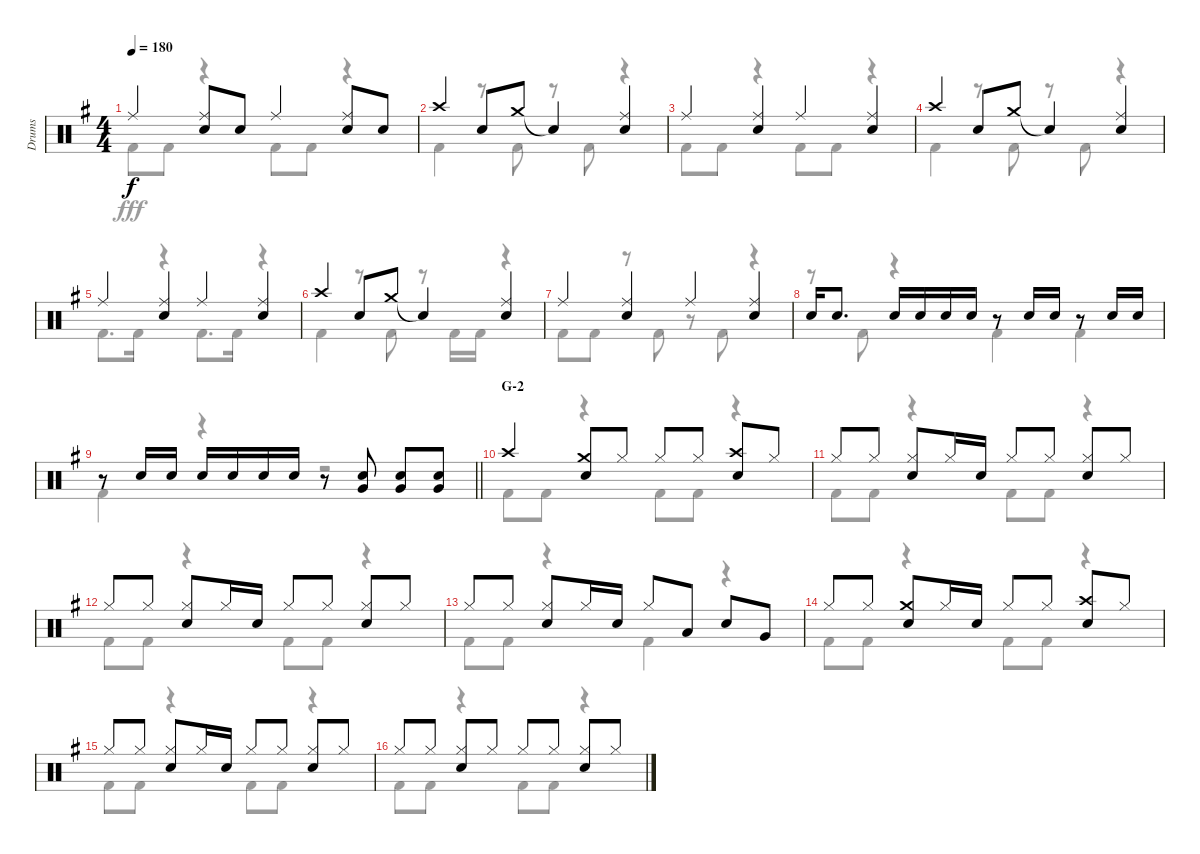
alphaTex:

\track ("Drums" "Drums") {instrument percussion}
\staff {score}
\articulation defaults
\voice
\ts (4 4)
\tempo 180
\clef neutral
\ks g "Ride (middle)".4{dy f}
("Ride (middle)" "Snare (hit) 2").8 "Snare (hit) 2".8 "Ride (middle)".4 ("Ride (middle)" "Snare (hit) 2").8 "Snare (hit) 2".8 |
"Crash high (hit)".4 "Snare (hit) 2".8 "Crash medium (hit)".8 "Snare (hit)"{t}.4 ("Ride (middle)" "Snare (hit) 2").4 |
"Ride (middle)".4 ("Ride (middle)" "Snare (hit) 2").4 "Ride (middle)".4 ("Ride (middle)" "Snare (hit) 2").4 |
"Crash high (hit)".4 "Snare (hit) 2".8 "Crash medium (hit)".8 "Snare (hit)"{t}.4 ("Ride (middle)" "Snare (hit) 2").4 |
"Ride (middle)".4 ("Ride (middle)" "Snare (hit) 2").4 "Ride (middle)".4 ("Ride (middle)" "Snare (hit) 2").4 |
"Crash high (hit)".4 "Snare (hit) 2".8 "Crash medium (hit)".8 "Snare (hit)"{t}.4 ("Ride (middle)" "Snare (hit) 2").4 |
"Ride (middle)".4 ("Ride (middle)" "Snare (hit) 2").4 "Ride (middle)".4 ("Ride (middle)" "Snare (hit) 2").4 |
"Snare (hit) 2".16 "Snare (hit) 2".8{d} "Snare (hit) 2".16 "Snare (hit) 2".16 "Snare (hit) 2".16 "Snare (hit) 2".16 r.8 "Snare (hit) 2".16 "Snare (hit) 2".16 r.8 "Snare (hit) 2".16 "Snare (hit) 2".16 |
\barLineRight lightlight
r.8 "Snare (hit) 2".16 "Snare (hit) 2".16 "Snare (hit) 2".16 "Snare (hit) 2".16 "Snare (hit) 2".16 "Snare (hit) 2".16 r.8 ("Snare (hit) 2" "Very Low Tom (hit)").8 ("Snare (hit) 2" "Very Low Tom (hit)").8 ("Snare (hit) 2" "Very Low Tom (hit)").8 |
\section ("" "G-2")
"Crash high (hit)".4 ("Crash medium (hit)" "Snare (hit) 2").8 "Hi-Hat (closed)".8 "Hi-Hat (closed)".8 "Hi-Hat (closed)".8 ("Crash high (hit)" "Snare (hit) 2").8 "Hi-Hat (closed)".8 |
"Hi-Hat (closed)".8 "Hi-Hat (closed)".8 ("Hi-Hat (closed)" "Snare (hit) 2").8 "Hi-Hat (closed)".16 "Snare (hit) 2".16 "Hi-Hat (closed)".8 "Hi-Hat (closed)".8 ("Hi-Hat (closed)" "Snare (hit) 2").8 "Hi-Hat (closed)".8 |
"Hi-Hat (closed)".8 "Hi-Hat (closed)".8 ("Hi-Hat (closed)" "Snare (hit) 2").8 "Hi-Hat (closed)".16 "Snare (hit) 2".16 "Hi-Hat (closed)".8 "Hi-Hat (closed)".8 ("Hi-Hat (closed)" "Snare (hit) 2").8 "Hi-Hat (closed)".8 |
"Hi-Hat (closed)".8 "Hi-Hat (closed)".8 ("Hi-Hat (closed)" "Snare (hit) 2").8 "Hi-Hat (closed)".16 "Snare (hit) 2".16 "Hi-Hat (closed)".8 "Low Tom (hit)".8 "Snare (hit) 2".8 "Very Low Tom (hit)".8 |
"Hi-Hat (closed)".8 "Hi-Hat (closed)".8 ("Crash medium (hit)" "Snare (hit) 2").8 "Hi-Hat (closed)".16 "Snare (hit) 2".16 "Hi-Hat (closed)".8 "Hi-Hat (closed)".8 ("Crash high (hit)" "Snare (hit) 2").8 "Hi-Hat (closed)".8 |
"Hi-Hat (closed)".8 "Hi-Hat (closed)".8 ("Hi-Hat (closed)" "Snare (hit) 2").8 "Hi-Hat (closed)".16 "Snare (hit) 2".16 "Hi-Hat (closed)".8 "Hi-Hat (closed)".8 ("Hi-Hat (closed)" "Snare (hit) 2").8 "Hi-Hat (closed)".8 |
"Hi-Hat (closed)".8 "Hi-Hat (closed)".8 ("Hi-Hat (closed)" "Snare (hit) 2").8 "Hi-Hat (closed)".8 "Hi-Hat (closed)".8 "Hi-Hat (closed)".8 ("Hi-Hat (closed)" "Snare (hit) 2").8 "Hi-Hat (closed)".8
\voice
\clef neutral
\ottava regular
\simile none
\ks g "Kick (hit) 2".8{dy fff} "Kick (hit) 2".8
r.4 "Kick (hit) 2".8 "Kick (hit) 2".8 r.4 |
"Kick (hit) 2".4 r.8 "Kick (hit) 2".8 r.8 "Kick (hit) 2".8 r.4 |
"Kick (hit) 2".8 "Kick (hit) 2".8 r.4 "Kick (hit) 2".8 "Kick (hit) 2".8 r.4 |
"Kick (hit) 2".4 r.8 "Kick (hit) 2".8 r.8 "Kick (hit) 2".8 r.4 |
"Kick (hit) 2".8{d} "Kick (hit) 2".16 r.4 "Kick (hit) 2".8{d} "Kick (hit) 2".16 r.4 |
"Kick (hit) 2".4 r.8 "Kick (hit) 2".8 r.8 "Kick (hit) 2".16 "Kick (hit) 2".16 r.4 |
"Kick (hit) 2".8 "Kick (hit) 2".8 r.8 "Kick (hit) 2".8 r.8 "Kick (hit) 2".8 r.4 |
r.8 "Kick (hit) 2".8 r.4 "Kick (hit) 2".4 "Kick (hit) 2".4 |
\barLineRight lightlight "Kick (hit) 2".4
r.4 r.2 |
"Kick (hit) 2".8 "Kick (hit) 2".8 r.4 "Kick (hit) 2".8 "Kick (hit) 2".8 r.4 |
"Kick (hit) 2".8 "Kick (hit) 2".8 r.4 "Kick (hit) 2".8 "Kick (hit) 2".8 r.4 |
"Kick (hit) 2".8 "Kick (hit) 2".8 r.4 "Kick (hit) 2".8 "Kick (hit) 2".8 r.4 |
"Kick (hit) 2".8 "Kick (hit) 2".8 r.4 "Kick (hit) 2".4 r.4 |
"Kick (hit) 2".8 "Kick (hit) 2".8 r.4 "Kick (hit) 2".8 "Kick (hit) 2".8 r.4 |
"Kick (hit) 2".8 "Kick (hit) 2".8 r.4 "Kick (hit) 2".8 "Kick (hit) 2".8 r.4 |
"Kick (hit) 2".8 "Kick (hit) 2".8 r.4 "Kick (hit) 2".8 "Kick (hit) 2".8 r.4
